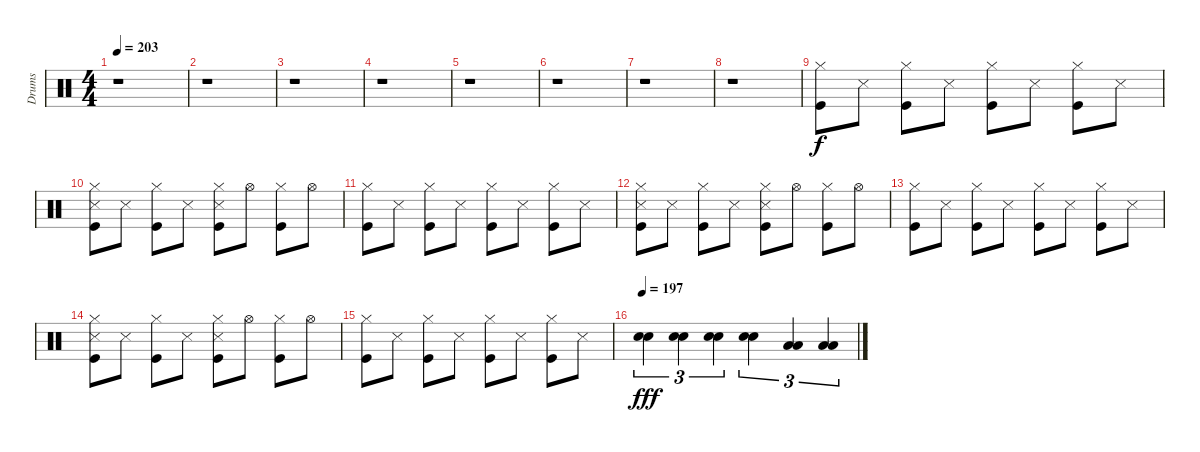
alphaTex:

\track ("Drums" "Drums") {instrument percussion}
\staff {score}
\articulation defaults
\ts (4 4)
\tempo 203
\clef neutral
\ks c
r.1{dy f} |
r.1 |
r.1 |
r.1 |
r.1 |
r.1 |
r.1 |
r.1 |
("Hi-Hat (closed)" "Kick (hit)").8 "Snare (side stick) 3".8 ("Hi-Hat (closed)" "Kick (hit)").8 "Snare (side stick) 3".8 ("Hi-Hat (closed)" "Kick (hit)").8 "Snare (side stick) 3".8 ("Hi-Hat (closed)" "Kick (hit)").8 "Snare (side stick) 3".8 |
("Hi-Hat (closed)" "Snare (side stick) 3" "Kick (hit)").8 "Snare (side stick) 3".8 ("Hi-Hat (closed)" "Kick (hit)").8 "Snare (side stick) 3".8 ("Hi-Hat (closed)" "Snare (side stick) 3" "Kick (hit)").8 "Hi-Hat (open)".8 ("Hi-Hat (closed)" "Kick (hit)").8 "Hi-Hat (open)".8 |
("Hi-Hat (closed)" "Kick (hit)").8 "Snare (side stick) 3".8 ("Hi-Hat (closed)" "Kick (hit)").8 "Snare (side stick) 3".8 ("Hi-Hat (closed)" "Kick (hit)").8 "Snare (side stick) 3".8 ("Hi-Hat (closed)" "Kick (hit)").8 "Snare (side stick) 3".8 |
("Hi-Hat (closed)" "Snare (side stick) 3" "Kick (hit)").8 "Snare (side stick) 3".8 ("Hi-Hat (closed)" "Kick (hit)").8 "Snare (side stick) 3".8 ("Hi-Hat (closed)" "Snare (side stick) 3" "Kick (hit)").8 "Hi-Hat (open)".8 ("Hi-Hat (closed)" "Kick (hit)").8 "Hi-Hat (open)".8 |
("Hi-Hat (closed)" "Kick (hit)").8 "Snare (side stick) 3".8 ("Hi-Hat (closed)" "Kick (hit)").8 "Snare (side stick) 3".8 ("Hi-Hat (closed)" "Kick (hit)").8 "Snare (side stick) 3".8 ("Hi-Hat (closed)" "Kick (hit)").8 "Snare (side stick) 3".8 |
("Hi-Hat (closed)" "Snare (side stick) 3" "Kick (hit)").8 "Snare (side stick) 3".8 ("Hi-Hat (closed)" "Kick (hit)").8 "Snare (side stick) 3".8 ("Hi-Hat (closed)" "Snare (side stick) 3" "Kick (hit)").8 "Hi-Hat (open)".8 ("Hi-Hat (closed)" "Kick (hit)").8 "Hi-Hat (open)".8 |
("Hi-Hat (closed)" "Kick (hit)").8 "Snare (side stick) 3".8 ("Hi-Hat (closed)" "Kick (hit)").8 "Snare (side stick) 3".8 ("Hi-Hat (closed)" "Kick (hit)").8 "Snare (side stick) 3".8 ("Hi-Hat (closed)" "Kick (hit)").8 "Snare (side stick) 3".8 |
\tempo 197
("Snare (hit) 2" "Snare (hit) 2").4{tu (3 2) dy fff} ("Snare (hit) 2" "Snare (hit) 2").4{tu (3 2)} ("Snare (hit) 2" "Snare (hit) 2").4{tu (3 2)} ("Snare (hit) 2" "Snare (hit) 2").4{tu (3 2)} ("Low Tom (hit)" "Low Tom (hit)").4{tu (3 2)} ("Low Floor Tom (hit)" "Low Floor Tom (hit)").4{tu (3 2)}
